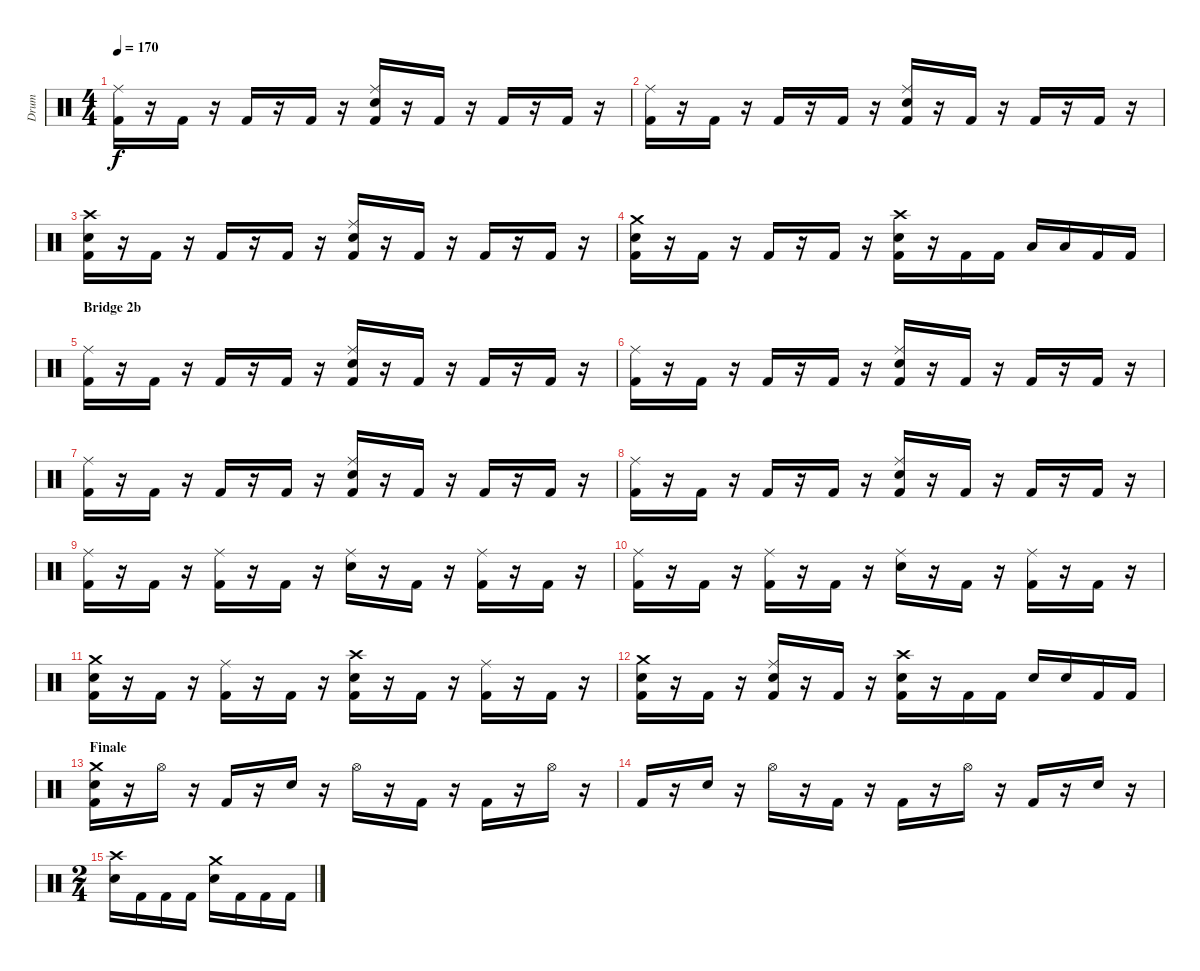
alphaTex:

\track ("Drum" "Drum") {instrument percussion}
\staff {score}
\articulation defaults
\ts (4 4)
\tempo 170
\clef neutral
\ks c
("Kick (hit) 2" "Ride (middle)").16{dy f} r.16 "Kick (hit) 2".16 r.16 "Kick (hit) 2".16 r.16 "Kick (hit) 2".16 r.16 ("Kick (hit) 2" "Electric Snare (hit)" "Ride (middle)").16 r.16 "Kick (hit) 2".16 r.16 "Kick (hit) 2".16 r.16 "Kick (hit) 2".16 r.16 |
("Kick (hit) 2" "Ride (middle)").16 r.16 "Kick (hit) 2".16 r.16 "Kick (hit) 2".16 r.16 "Kick (hit) 2".16 r.16 ("Kick (hit) 2" "Electric Snare (hit)" "Ride (middle)").16 r.16 "Kick (hit) 2".16 r.16 "Kick (hit) 2".16 r.16 "Kick (hit) 2".16 r.16 |
("Electric Snare (hit)" "Kick (hit) 2" "Crash high (hit)").16 r.16 "Kick (hit) 2".16 r.16 "Kick (hit) 2".16 r.16 "Kick (hit) 2".16 r.16 ("Electric Snare (hit)" "Kick (hit) 2" "Ride (middle)").16 r.16 "Kick (hit) 2".16 r.16 "Kick (hit) 2".16 r.16 "Kick (hit) 2".16 r.16 |
("Kick (hit) 2" "Electric Snare (hit)" "Crash medium (hit)").16 r.16 "Kick (hit) 2".16 r.16 "Kick (hit) 2".16 r.16 "Kick (hit) 2".16 r.16 ("Kick (hit) 2" "Electric Snare (hit)" "Crash high (hit)").16 r.16 "Kick (hit) 2".16 "Kick (hit) 2".16 "Low Tom (hit)".16 "Low Tom (hit)".16 "Kick (hit) 2".16 "Kick (hit) 2".16 |
\section ("" "Bridge 2b")
("Kick (hit) 2" "Ride (middle)").16 r.16 "Kick (hit) 2".16 r.16 "Kick (hit) 2".16 r.16 "Kick (hit) 2".16 r.16 ("Electric Snare (hit)" "Kick (hit) 2" "Ride (middle)").16 r.16 "Kick (hit) 2".16 r.16 "Kick (hit) 2".16 r.16 "Kick (hit) 2".16 r.16 |
("Kick (hit) 2" "Ride (middle)").16 r.16 "Kick (hit) 2".16 r.16 "Kick (hit) 2".16 r.16 "Kick (hit) 2".16 r.16 ("Kick (hit) 2" "Electric Snare (hit)" "Ride (middle)").16 r.16 "Kick (hit) 2".16 r.16 "Kick (hit) 2".16 r.16 "Kick (hit) 2".16 r.16 |
("Kick (hit) 2" "Ride (middle)").16 r.16 "Kick (hit) 2".16 r.16 "Kick (hit) 2".16 r.16 "Kick (hit) 2".16 r.16 ("Kick (hit) 2" "Electric Snare (hit)" "Ride (middle)").16 r.16 "Kick (hit) 2".16 r.16 "Kick (hit) 2".16 r.16 "Kick (hit) 2".16 r.16 |
("Kick (hit) 2" "Ride (middle)").16 r.16 "Kick (hit) 2".16 r.16 "Kick (hit) 2".16 r.16 "Kick (hit) 2".16 r.16 ("Electric Snare (hit)" "Kick (hit) 2" "Ride (middle)").16 r.16 "Kick (hit) 2".16 r.16 "Kick (hit) 2".16 r.16 "Kick (hit) 2".16 r.16 |
("Kick (hit) 2" "Ride (middle)").16 r.16 "Kick (hit) 2".16 r.16 ("Kick (hit) 2" "Ride (middle)").16 r.16 "Kick (hit) 2".16 r.16 ("Electric Snare (hit)" "Ride (middle)").16 r.16 "Kick (hit) 2".16 r.16 ("Kick (hit) 2" "Ride (middle)").16 r.16 "Kick (hit) 2".16 r.16 |
("Kick (hit) 2" "Ride (middle)").16 r.16 "Kick (hit) 2".16 r.16 ("Kick (hit) 2" "Ride (middle)").16 r.16 "Kick (hit) 2".16 r.16 ("Electric Snare (hit)" "Ride (middle)").16 r.16 "Kick (hit) 2".16 r.16 ("Kick (hit) 2" "Ride (middle)").16 r.16 "Kick (hit) 2".16 r.16 |
("Electric Snare (hit)" "Kick (hit) 2" "Crash medium (hit)").16 r.16 "Kick (hit) 2".16 r.16 ("Kick (hit) 2" "Ride (middle)").16 r.16 "Kick (hit) 2".16 r.16 ("Electric Snare (hit)" "Kick (hit) 2" "Crash high (hit)").16 r.16 "Kick (hit) 2".16 r.16 ("Kick (hit) 2" "Ride (middle)").16 r.16 "Kick (hit) 2".16 r.16 |
("Kick (hit) 2" "Electric Snare (hit)" "Crash medium (hit)").16 r.16 "Kick (hit) 2".16 r.16 ("Electric Snare (hit)" "Kick (hit) 2" "Ride (middle)").16 r.16 "Kick (hit) 2".16 r.16 ("Kick (hit) 2" "Electric Snare (hit)" "Crash high (hit)").16 r.16 "Kick (hit) 2".16 "Kick (hit) 2".16 "Electric Snare (hit)".16 "Electric Snare (hit)".16 "Kick (hit) 2".16 "Kick (hit) 2".16 |
\section ("" "Finale")
("Electric Snare (hit)" "Kick (hit) 2" "Crash medium (hit)").16 r.16 "Hi-Hat (open)".16 r.16 "Kick (hit) 2".16 r.16 "Electric Snare (hit)".16 r.16 "Hi-Hat (open)".16 r.16 "Kick (hit) 2".16 r.16 "Kick (hit) 2".16 r.16 "Hi-Hat (open)".16 r.16 |
"Kick (hit) 2".16 r.16 "Electric Snare (hit)".16 r.16 "Hi-Hat (open)".16 r.16 "Kick (hit) 2".16 r.16 "Kick (hit) 2".16 r.16 "Hi-Hat (open)".16 r.16 "Kick (hit) 2".16 r.16 "Electric Snare (hit)".16 r.16 |
\ts (2 4)
("Electric Snare (hit)" "Crash high (hit)").16 "Kick (hit) 2".16 "Kick (hit) 2".16 "Kick (hit) 2".16 ("Electric Snare (hit)" "Crash medium (hit)").16 "Kick (hit) 2".16 "Kick (hit) 2".16 "Kick (hit) 2".16
